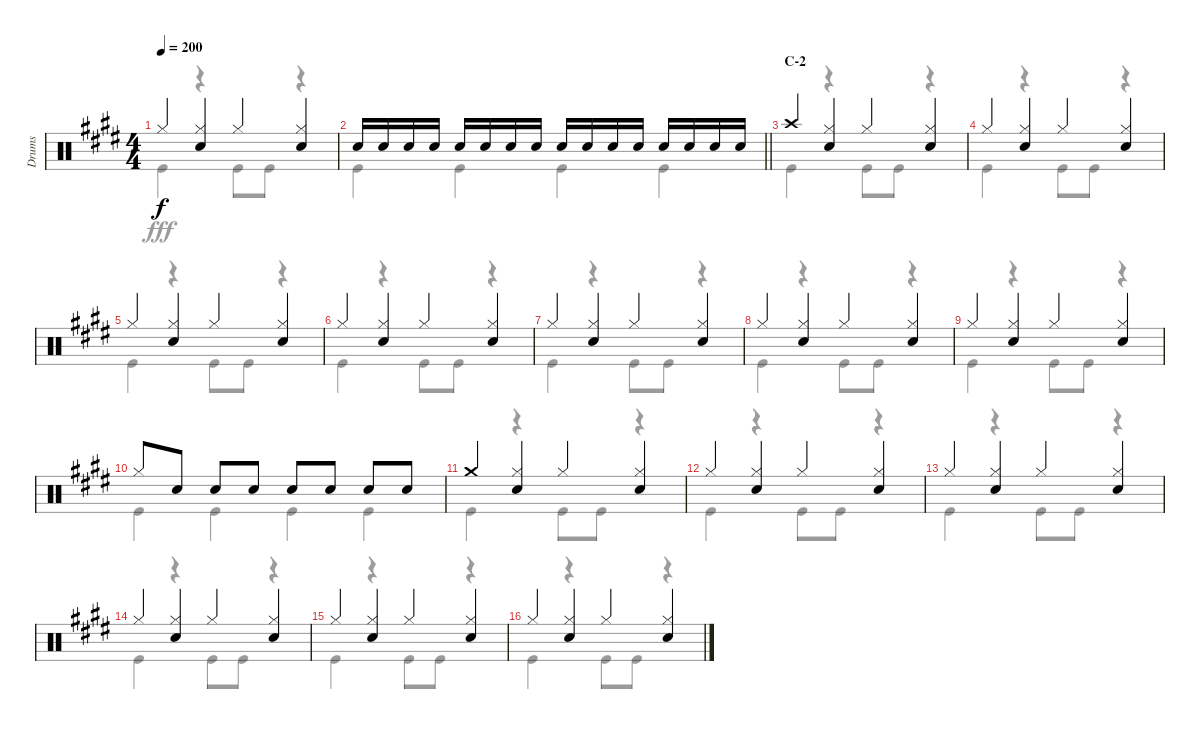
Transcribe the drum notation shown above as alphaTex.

\track ("Drums" "Drums") {instrument percussion}
\staff {score}
\articulation defaults
\voice
\ts (4 4)
\tempo 200
\clef neutral
\ks e "Hi-Hat (closed)".4{dy f}
("Hi-Hat (closed)" "Snare (hit) 2").4 "Hi-Hat (closed)".4 ("Hi-Hat (closed)" "Snare (hit) 2").4 |
\barLineRight lightlight "Snare (hit) 2".16 "Snare (hit) 2".16 "Snare (hit) 2".16 "Snare (hit) 2".16 "Snare (hit) 2".16 "Snare (hit) 2".16 "Snare (hit) 2".16 "Snare (hit) 2".16 "Snare (hit) 2".16 "Snare (hit) 2".16 "Snare (hit) 2".16 "Snare (hit) 2".16 "Snare (hit) 2".16 "Snare (hit) 2".16 "Snare (hit) 2".16 "Snare (hit) 2".16
|
\section ("" "C-2")
"Crash high (hit)".4 ("Hi-Hat (closed)" "Snare (hit) 2").4 "Hi-Hat (closed)".4 ("Hi-Hat (closed)" "Snare (hit) 2").4 |
"Hi-Hat (closed)".4 ("Hi-Hat (closed)" "Snare (hit) 2").4 "Hi-Hat (closed)".4 ("Hi-Hat (closed)" "Snare (hit) 2").4 |
"Hi-Hat (closed)".4 ("Hi-Hat (closed)" "Snare (hit) 2").4 "Hi-Hat (closed)".4 ("Hi-Hat (closed)" "Snare (hit) 2").4 |
"Hi-Hat (closed)".4 ("Hi-Hat (closed)" "Snare (hit) 2").4 "Hi-Hat (closed)".4 ("Hi-Hat (closed)" "Snare (hit) 2").4 |
"Hi-Hat (closed)".4 ("Hi-Hat (closed)" "Snare (hit) 2").4 "Hi-Hat (closed)".4 ("Hi-Hat (closed)" "Snare (hit) 2").4 |
"Hi-Hat (closed)".4 ("Hi-Hat (closed)" "Snare (hit) 2").4 "Hi-Hat (closed)".4 ("Hi-Hat (closed)" "Snare (hit) 2").4 |
"Hi-Hat (closed)".4 ("Hi-Hat (closed)" "Snare (hit) 2").4 "Hi-Hat (closed)".4 ("Hi-Hat (closed)" "Snare (hit) 2").4 |
"Hi-Hat (closed)".8 "Snare (hit) 2".8 "Snare (hit) 2".8 "Snare (hit) 2".8 "Snare (hit) 2".8 "Snare (hit) 2".8 "Snare (hit) 2".8 "Snare (hit) 2".8 |
"Crash medium (hit)".4 ("Hi-Hat (closed)" "Snare (hit) 2").4 "Hi-Hat (closed)".4 ("Hi-Hat (closed)" "Snare (hit) 2").4 |
"Hi-Hat (closed)".4 ("Hi-Hat (closed)" "Snare (hit) 2").4 "Hi-Hat (closed)".4 ("Hi-Hat (closed)" "Snare (hit) 2").4 |
"Hi-Hat (closed)".4 ("Hi-Hat (closed)" "Snare (hit) 2").4 "Hi-Hat (closed)".4 ("Hi-Hat (closed)" "Snare (hit) 2").4 |
"Hi-Hat (closed)".4 ("Hi-Hat (closed)" "Snare (hit) 2").4 "Hi-Hat (closed)".4 ("Hi-Hat (closed)" "Snare (hit) 2").4 |
"Hi-Hat (closed)".4 ("Hi-Hat (closed)" "Snare (hit) 2").4 "Hi-Hat (closed)".4 ("Hi-Hat (closed)" "Snare (hit) 2").4 |
"Hi-Hat (closed)".4 ("Hi-Hat (closed)" "Snare (hit) 2").4 "Hi-Hat (closed)".4 ("Hi-Hat (closed)" "Snare (hit) 2").4
\voice
\clef neutral
\ottava regular
\simile none
\ks e "Kick (hit)".4{dy fff}
r.4 "Kick (hit)".8 "Kick (hit)".8 r.4 |
\barLineRight lightlight "Kick (hit)".4 "Kick (hit)".4 "Kick (hit)".4 "Kick (hit)".4
|
"Kick (hit)".4 r.4 "Kick (hit)".8 "Kick (hit)".8 r.4 |
"Kick (hit)".4 r.4 "Kick (hit)".8 "Kick (hit)".8 r.4 |
"Kick (hit)".4 r.4 "Kick (hit)".8 "Kick (hit)".8 r.4 |
"Kick (hit)".4 r.4 "Kick (hit)".8 "Kick (hit)".8 r.4 |
"Kick (hit)".4 r.4 "Kick (hit)".8 "Kick (hit)".8 r.4 |
"Kick (hit)".4 r.4 "Kick (hit)".8 "Kick (hit)".8 r.4 |
"Kick (hit)".4 r.4 "Kick (hit)".8 "Kick (hit)".8 r.4 |
"Kick (hit)".4 "Kick (hit)".4 "Kick (hit)".4 "Kick (hit)".4 |
"Kick (hit)".4 r.4 "Kick (hit)".8 "Kick (hit)".8 r.4 |
"Kick (hit)".4 r.4 "Kick (hit)".8 "Kick (hit)".8 r.4 |
"Kick (hit)".4 r.4 "Kick (hit)".8 "Kick (hit)".8 r.4 |
"Kick (hit)".4 r.4 "Kick (hit)".8 "Kick (hit)".8 r.4 |
"Kick (hit)".4 r.4 "Kick (hit)".8 "Kick (hit)".8 r.4 |
"Kick (hit)".4 r.4 "Kick (hit)".8 "Kick (hit)".8 r.4
